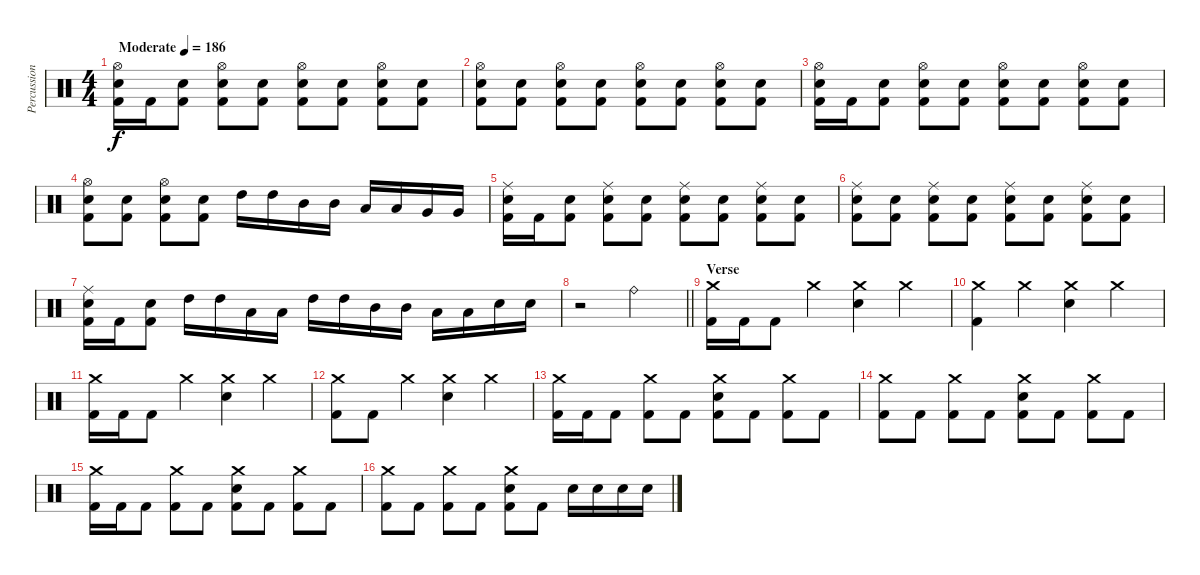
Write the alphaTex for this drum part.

\track ("Percussion" "Percussion") {instrument percussion}
\staff {score}
\articulation defaults
\ts (4 4)
\tempo (186 "Moderate")
\clef neutral
\ks c
("Hi-Hat (open)" "Snare (hit) 2" "Kick (hit) 2").16{dy f} "Kick (hit) 2".16 ("Snare (hit) 2" "Kick (hit) 2").8 ("Hi-Hat (open)" "Snare (hit) 2" "Kick (hit) 2").8 ("Snare (hit) 2" "Kick (hit) 2").8 ("Hi-Hat (open)" "Snare (hit) 2" "Kick (hit) 2").8 ("Snare (hit) 2" "Kick (hit) 2").8 ("Hi-Hat (open)" "Snare (hit) 2" "Kick (hit) 2").8 ("Snare (hit) 2" "Kick (hit) 2").8 |
("Hi-Hat (open)" "Snare (hit) 2" "Kick (hit) 2").8 ("Snare (hit) 2" "Kick (hit) 2").8 ("Hi-Hat (open)" "Snare (hit) 2" "Kick (hit) 2").8 ("Snare (hit) 2" "Kick (hit) 2").8 ("Hi-Hat (open)" "Snare (hit) 2" "Kick (hit) 2").8 ("Snare (hit) 2" "Kick (hit) 2").8 ("Hi-Hat (open)" "Snare (hit) 2" "Kick (hit) 2").8 ("Snare (hit) 2" "Kick (hit) 2").8 |
("Hi-Hat (open)" "Snare (hit) 2" "Kick (hit) 2").16 "Kick (hit) 2".16 ("Snare (hit) 2" "Kick (hit) 2").8 ("Hi-Hat (open)" "Snare (hit) 2" "Kick (hit) 2").8 ("Snare (hit) 2" "Kick (hit) 2").8 ("Hi-Hat (open)" "Snare (hit) 2" "Kick (hit) 2").8 ("Snare (hit) 2" "Kick (hit) 2").8 ("Hi-Hat (open)" "Snare (hit) 2" "Kick (hit) 2").8 ("Snare (hit) 2" "Kick (hit) 2").8 |
("Hi-Hat (open)" "Snare (hit) 2" "Kick (hit) 2").8 ("Snare (hit) 2" "Kick (hit) 2").8 ("Hi-Hat (open)" "Snare (hit) 2" "Kick (hit) 2").8 ("Snare (hit) 2" "Kick (hit) 2").8 "High Tom (hit)".16 "High Tom (hit)".16 "Mid Tom (hit)".16 "Mid Tom (hit)".16 "Low Tom (hit)".16 "Low Tom (hit)".16 "Very Low Tom (hit)".16 "Very Low Tom (hit)".16 |
("Ride (middle)" "Snare (hit) 2" "Kick (hit) 2").16 "Kick (hit) 2".16 ("Snare (hit) 2" "Kick (hit) 2").8 ("Ride (middle)" "Snare (hit) 2" "Kick (hit) 2").8 ("Snare (hit) 2" "Kick (hit) 2").8 ("Ride (middle)" "Snare (hit) 2" "Kick (hit) 2").8 ("Snare (hit) 2" "Kick (hit) 2").8 ("Ride (middle)" "Snare (hit) 2" "Kick (hit) 2").8 ("Snare (hit) 2" "Kick (hit) 2").8 |
("Ride (middle)" "Snare (hit) 2" "Kick (hit) 2").8 ("Snare (hit) 2" "Kick (hit) 2").8 ("Ride (middle)" "Snare (hit) 2" "Kick (hit) 2").8 ("Snare (hit) 2" "Kick (hit) 2").8 ("Ride (middle)" "Snare (hit) 2" "Kick (hit) 2").8 ("Snare (hit) 2" "Kick (hit) 2").8 ("Ride (middle)" "Snare (hit) 2" "Kick (hit) 2").8 ("Snare (hit) 2" "Kick (hit) 2").8 |
("Ride (middle)" "Snare (hit) 2" "Kick (hit) 2").16 "Kick (hit) 2".16 ("Snare (hit) 2" "Kick (hit) 2").8 "High Tom (hit)".16 "High Tom (hit)".16 "Low Tom (hit)".16 "Low Tom (hit)".16 "High Tom (hit)".16 "High Tom (hit)".16 "Mid Tom (hit)".16 "Mid Tom (hit)".16 "Low Tom (hit)".16 "Low Tom (hit)".16 "Snare (hit) 2".16 "Snare (hit) 2".16 |
\barLineRight lightlight
r.2 "Ride (bell)".2 |
\section ("" "Verse")
("Crash medium (hit)" "Kick (hit) 2").16 "Kick (hit) 2".16 "Kick (hit) 2".8 "Crash medium (hit)".4 ("Crash medium (hit)" "Snare (hit) 2").4 "Crash medium (hit)".4 |
("Crash medium (hit)" "Kick (hit) 2").4 "Crash medium (hit)".4 ("Crash medium (hit)" "Snare (hit) 2").4 "Crash medium (hit)".4 |
("Crash medium (hit)" "Kick (hit) 2").16 "Kick (hit) 2".16 "Kick (hit) 2".8 "Crash medium (hit)".4 ("Crash medium (hit)" "Snare (hit) 2").4 "Crash medium (hit)".4 |
("Crash medium (hit)" "Kick (hit) 2").8 "Kick (hit) 2".8 "Crash medium (hit)".4 ("Crash medium (hit)" "Snare (hit) 2").4 "Crash medium (hit)".4 |
("Crash medium (hit)" "Kick (hit) 2").16 "Kick (hit) 2".16 "Kick (hit) 2".8 ("Crash medium (hit)" "Kick (hit) 2").8 "Kick (hit) 2".8 ("Crash medium (hit)" "Snare (hit) 2" "Kick (hit) 2").8 "Kick (hit) 2".8 ("Crash medium (hit)" "Kick (hit) 2").8 "Kick (hit) 2".8 |
("Crash medium (hit)" "Kick (hit) 2").8 "Kick (hit) 2".8 ("Crash medium (hit)" "Kick (hit) 2").8 "Kick (hit) 2".8 ("Crash medium (hit)" "Snare (hit) 2" "Kick (hit) 2").8 "Kick (hit) 2".8 ("Crash medium (hit)" "Kick (hit) 2").8 "Kick (hit) 2".8 |
("Crash medium (hit)" "Kick (hit) 2").16 "Kick (hit) 2".16 "Kick (hit) 2".8 ("Crash medium (hit)" "Kick (hit) 2").8 "Kick (hit) 2".8 ("Crash medium (hit)" "Snare (hit) 2" "Kick (hit) 2").8 "Kick (hit) 2".8 ("Crash medium (hit)" "Kick (hit) 2").8 "Kick (hit) 2".8 |
("Crash medium (hit)" "Kick (hit) 2").8 "Kick (hit) 2".8 ("Crash medium (hit)" "Kick (hit) 2").8 "Kick (hit) 2".8 ("Crash medium (hit)" "Snare (hit) 2" "Kick (hit) 2").8 "Kick (hit) 2".8 "Snare (hit) 2".16 "Snare (hit) 2".16 "Snare (hit) 2".16 "Snare (hit) 2".16
